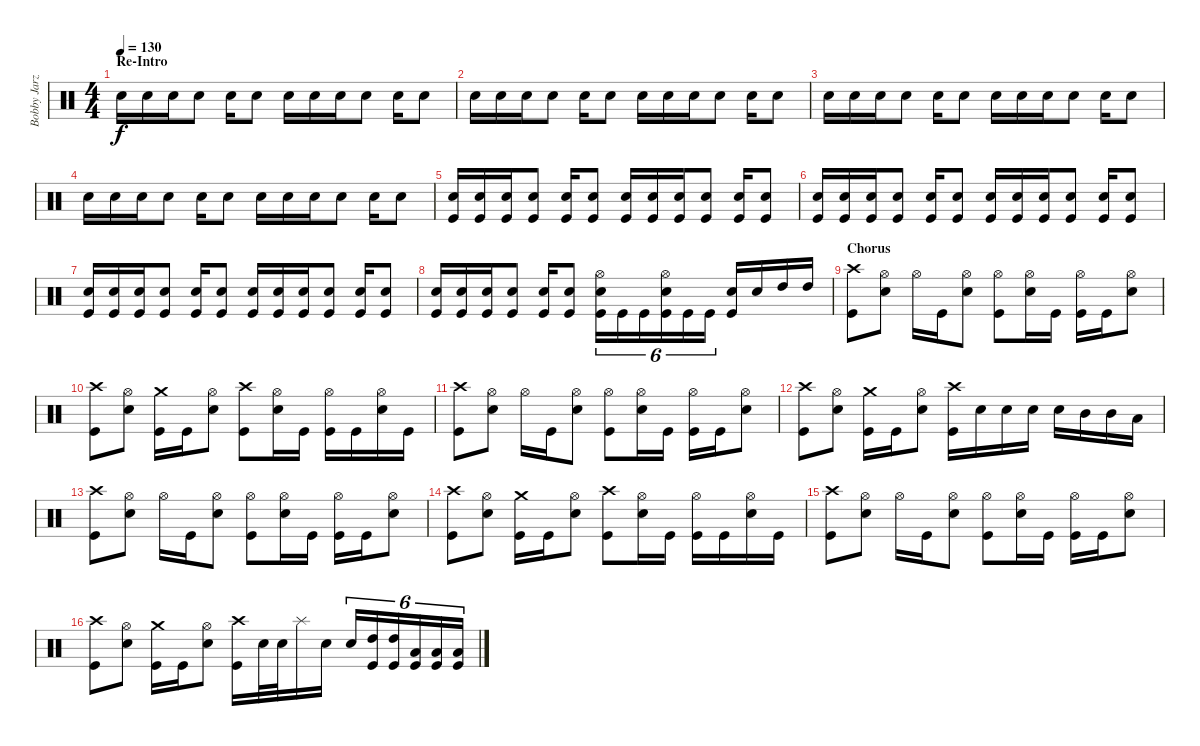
\track ("Bobby Jarzombek" "Bobby Jarz") {instrument percussion}
\staff {score}
\articulation defaults
\ts (4 4)
\section ("" "Re-Intro")
\tempo 130
\clef neutral
\ks c "Electric Snare (hit)".16{dy f volume 13} "Electric Snare (hit)".16 "Electric Snare (hit)".16 "Electric Snare (hit)".8 "Electric Snare (hit)".16 "Electric Snare (hit)".8 "Electric Snare (hit)".16 "Electric Snare (hit)".16 "Electric Snare (hit)".16 "Electric Snare (hit)".8 "Electric Snare (hit)".16 "Electric Snare (hit)".8
|
"Electric Snare (hit)".16 "Electric Snare (hit)".16 "Electric Snare (hit)".16 "Electric Snare (hit)".8 "Electric Snare (hit)".16 "Electric Snare (hit)".8 "Electric Snare (hit)".16 "Electric Snare (hit)".16 "Electric Snare (hit)".16 "Electric Snare (hit)".8 "Electric Snare (hit)".16 "Electric Snare (hit)".8 |
"Electric Snare (hit)".16 "Electric Snare (hit)".16 "Electric Snare (hit)".16 "Electric Snare (hit)".8 "Electric Snare (hit)".16 "Electric Snare (hit)".8 "Electric Snare (hit)".16 "Electric Snare (hit)".16 "Electric Snare (hit)".16 "Electric Snare (hit)".8 "Electric Snare (hit)".16 "Electric Snare (hit)".8 |
"Electric Snare (hit)".16 "Electric Snare (hit)".16 "Electric Snare (hit)".16 "Electric Snare (hit)".8 "Electric Snare (hit)".16 "Electric Snare (hit)".8 "Electric Snare (hit)".16 "Electric Snare (hit)".16 "Electric Snare (hit)".16 "Electric Snare (hit)".8 "Electric Snare (hit)".16 "Electric Snare (hit)".8 |
("Electric Snare (hit)" "Kick (hit)").16 ("Electric Snare (hit)" "Kick (hit)").16 ("Electric Snare (hit)" "Kick (hit)").16 ("Electric Snare (hit)" "Kick (hit)").8 ("Electric Snare (hit)" "Kick (hit)").16 ("Electric Snare (hit)" "Kick (hit)").8 ("Electric Snare (hit)" "Kick (hit)").16 ("Electric Snare (hit)" "Kick (hit)").16 ("Electric Snare (hit)" "Kick (hit)").16 ("Electric Snare (hit)" "Kick (hit)").8 ("Electric Snare (hit)" "Kick (hit)").16 ("Electric Snare (hit)" "Kick (hit)").8 |
("Electric Snare (hit)" "Kick (hit)").16 ("Electric Snare (hit)" "Kick (hit)").16 ("Electric Snare (hit)" "Kick (hit)").16 ("Electric Snare (hit)" "Kick (hit)").8 ("Electric Snare (hit)" "Kick (hit)").16 ("Electric Snare (hit)" "Kick (hit)").8 ("Electric Snare (hit)" "Kick (hit)").16 ("Electric Snare (hit)" "Kick (hit)").16 ("Electric Snare (hit)" "Kick (hit)").16 ("Electric Snare (hit)" "Kick (hit)").8 ("Electric Snare (hit)" "Kick (hit)").16 ("Electric Snare (hit)" "Kick (hit)").8 |
("Electric Snare (hit)" "Kick (hit)").16 ("Electric Snare (hit)" "Kick (hit)").16 ("Electric Snare (hit)" "Kick (hit)").16 ("Electric Snare (hit)" "Kick (hit)").8 ("Electric Snare (hit)" "Kick (hit)").16 ("Electric Snare (hit)" "Kick (hit)").8 ("Electric Snare (hit)" "Kick (hit)").16 ("Electric Snare (hit)" "Kick (hit)").16 ("Electric Snare (hit)" "Kick (hit)").16 ("Electric Snare (hit)" "Kick (hit)").8 ("Electric Snare (hit)" "Kick (hit)").16 ("Electric Snare (hit)" "Kick (hit)").8 |
("Electric Snare (hit)" "Kick (hit)").16 ("Electric Snare (hit)" "Kick (hit)").16 ("Electric Snare (hit)" "Kick (hit)").16 ("Electric Snare (hit)" "Kick (hit)").8 ("Electric Snare (hit)" "Kick (hit)").16 ("Electric Snare (hit)" "Kick (hit)").8 ("Hi-Hat (open)" "Electric Snare (hit)" "Kick (hit)").16{tu (6 4)} "Kick (hit)".16{tu (6 4)} "Kick (hit)".16{tu (6 4)} ("Hi-Hat (open)" "Electric Snare (hit)" "Kick (hit)").16{tu (6 4)} "Kick (hit)".16{tu (6 4)} "Kick (hit)".16{tu (6 4)} ("Electric Snare (hit)" "Kick (hit)").16 "Electric Snare (hit)".16 "High Tom (hit)".16 "High Tom (hit)".16 |
\section ("" "Chorus")
("Crash high (hit)" "Kick (hit)").8 ("Hi-Hat (open)" "Electric Snare (hit)").8 "Hi-Hat (open)".16 "Kick (hit)".16 ("Hi-Hat (open)" "Electric Snare (hit)").8 ("Hi-Hat (open)" "Kick (hit)").8 ("Hi-Hat (open)" "Electric Snare (hit)").16 "Kick (hit)".16 ("Hi-Hat (open)" "Kick (hit)").16 "Kick (hit)".16 ("Hi-Hat (open)" "Electric Snare (hit)").8 |
("Crash high (hit)" "Kick (hit)").8 ("Hi-Hat (open)" "Electric Snare (hit)").8 ("Crash medium (hit)" "Kick (hit)").16 "Kick (hit)".16 ("Hi-Hat (open)" "Electric Snare (hit)").8 ("Crash high (hit)" "Kick (hit)").8 ("Hi-Hat (open)" "Electric Snare (hit)").16 "Kick (hit)".16 ("Hi-Hat (open)" "Kick (hit)").16 "Kick (hit)".16 ("Hi-Hat (open)" "Electric Snare (hit)").16 "Kick (hit)".16 |
("Crash high (hit)" "Kick (hit)").8 ("Hi-Hat (open)" "Electric Snare (hit)").8 "Hi-Hat (open)".16 "Kick (hit)".16 ("Hi-Hat (open)" "Electric Snare (hit)").8 ("Hi-Hat (open)" "Kick (hit)").8 ("Hi-Hat (open)" "Electric Snare (hit)").16 "Kick (hit)".16 ("Hi-Hat (open)" "Kick (hit)").16 "Kick (hit)".16 ("Hi-Hat (open)" "Electric Snare (hit)").8 |
("Crash high (hit)" "Kick (hit)").8 ("Hi-Hat (open)" "Electric Snare (hit)").8 ("Crash medium (hit)" "Kick (hit)").16 "Kick (hit)".16 ("Hi-Hat (open)" "Electric Snare (hit)").8 ("Crash high (hit)" "Kick (hit)").16 "Electric Snare (hit)".16 "Electric Snare (hit)".16 "Electric Snare (hit)".16 "Electric Snare (hit)".16 "Mid Tom (hit)".16 "Mid Tom (hit)".16 "Low Tom (hit)".16 |
("Crash high (hit)" "Kick (hit)").8 ("Hi-Hat (open)" "Electric Snare (hit)").8 "Hi-Hat (open)".16 "Kick (hit)".16 ("Hi-Hat (open)" "Electric Snare (hit)").8 ("Hi-Hat (open)" "Kick (hit)").8 ("Hi-Hat (open)" "Electric Snare (hit)").16 "Kick (hit)".16 ("Hi-Hat (open)" "Kick (hit)").16 "Kick (hit)".16 ("Hi-Hat (open)" "Electric Snare (hit)").8 |
("Crash high (hit)" "Kick (hit)").8 ("Hi-Hat (open)" "Electric Snare (hit)").8 ("Crash medium (hit)" "Kick (hit)").16 "Kick (hit)".16 ("Hi-Hat (open)" "Electric Snare (hit)").8 ("Crash high (hit)" "Kick (hit)").8 ("Hi-Hat (open)" "Electric Snare (hit)").16 "Kick (hit)".16 ("Hi-Hat (open)" "Kick (hit)").16 "Kick (hit)".16 ("Hi-Hat (open)" "Electric Snare (hit)").16 "Kick (hit)".16 |
("Crash high (hit)" "Kick (hit)").8 ("Hi-Hat (open)" "Electric Snare (hit)").8 "Hi-Hat (open)".16 "Kick (hit)".16 ("Hi-Hat (open)" "Electric Snare (hit)").8 ("Hi-Hat (open)" "Kick (hit)").8 ("Hi-Hat (open)" "Electric Snare (hit)").16 "Kick (hit)".16 ("Hi-Hat (open)" "Kick (hit)").16 "Kick (hit)".16 ("Hi-Hat (open)" "Electric Snare (hit)").8 |
("Crash high (hit)" "Kick (hit)").8 ("Hi-Hat (open)" "Electric Snare (hit)").8 ("Crash medium (hit)" "Kick (hit)").16 "Kick (hit)".16 ("Hi-Hat (open)" "Electric Snare (hit)").8 ("Crash high (hit)" "Kick (hit)").16 "Electric Snare (hit)".32 "Electric Snare (hit)".32 "Splash (hit)".16 "Electric Snare (hit)".16 "Electric Snare (hit)".16{tu (6 4)} ("High Tom (hit)" "Kick (hit)").16{tu (6 4)} ("High Tom (hit)" "Kick (hit)").16{tu (6 4)} ("Low Tom (hit)" "Kick (hit)").16{tu (6 4)} ("Low Tom (hit)" "Kick (hit)").16{tu (6 4)} ("Low Tom (hit)" "Kick (hit)").16{tu (6 4)}
